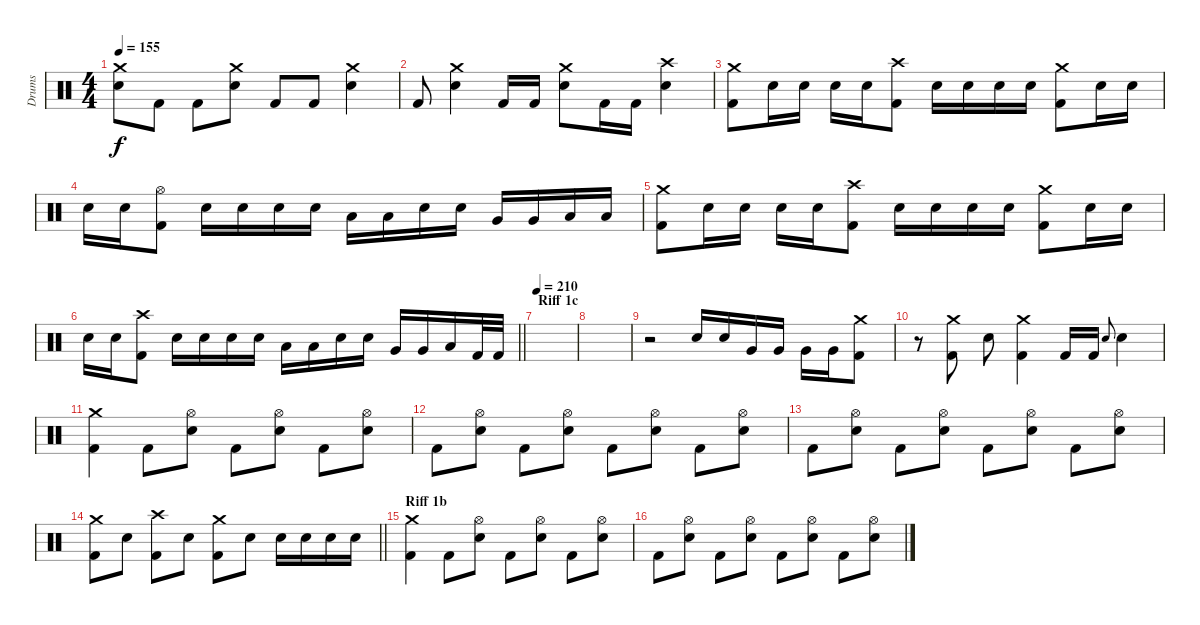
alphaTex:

\track ("Drums" "Drums") {instrument percussion}
\staff {score}
\articulation defaults
\ts (4 4)
\tempo 155
\clef neutral
\ks c
("Electric Snare (hit)" "Crash medium (hit)").8{dy f} "Kick (hit) 2".8 "Kick (hit) 2".8 ("Electric Snare (hit)" "Crash medium (hit)").8 "Kick (hit) 2".8 "Kick (hit) 2".8 ("Electric Snare (hit)" "Crash medium (hit)").4 |
"Kick (hit) 2".8 ("Electric Snare (hit)" "Crash medium (hit)").4 "Kick (hit) 2".16 "Kick (hit) 2".16 ("Electric Snare (hit)" "Crash medium (hit)").8 "Kick (hit) 2".16 "Kick (hit) 2".16 ("Electric Snare (hit)" "Crash high (hit)").4 |
("Crash medium (hit)" "Kick (hit) 2").8 "Electric Snare (hit)".16 "Electric Snare (hit)".16 "Electric Snare (hit)".16 "Electric Snare (hit)".16 ("Kick (hit) 2" "Crash high (hit)").8 "Electric Snare (hit)".16 "Electric Snare (hit)".16 "Electric Snare (hit)".16 "Electric Snare (hit)".16 ("Kick (hit) 2" "Crash medium (hit)").8 "Electric Snare (hit)".16 "Electric Snare (hit)".16 |
"Electric Snare (hit)".16 "Electric Snare (hit)".16 ("Kick (hit) 2" "Hi-Hat (open)").8 "Electric Snare (hit)".16 "Electric Snare (hit)".16 "Electric Snare (hit)".16 "Electric Snare (hit)".16 "Low Tom (hit)".16 "Low Tom (hit)".16 "Electric Snare (hit)".16 "Electric Snare (hit)".16 "Very Low Tom (hit)".16 "Very Low Tom (hit)".16 "Low Floor Tom (hit)".16 "Low Floor Tom (hit)".16 |
("Crash medium (hit)" "Kick (hit) 2").8 "Electric Snare (hit)".16 "Electric Snare (hit)".16 "Electric Snare (hit)".16 "Electric Snare (hit)".16 ("Kick (hit) 2" "Crash high (hit)").8 "Electric Snare (hit)".16 "Electric Snare (hit)".16 "Electric Snare (hit)".16 "Electric Snare (hit)".16 ("Kick (hit) 2" "Crash medium (hit)").8 "Electric Snare (hit)".16 "Electric Snare (hit)".16 |
\barLineRight lightlight "Electric Snare (hit)".16 "Electric Snare (hit)".16
("Kick (hit) 2" "Crash high (hit)").8 "Electric Snare (hit)".16 "Electric Snare (hit)".16 "Electric Snare (hit)".16 "Electric Snare (hit)".16 "Low Tom (hit)".16 "Low Tom (hit)".16 "Electric Snare (hit)".16 "Electric Snare (hit)".16 "Very Low Tom (hit)".16 "Very Low Tom (hit)".16 "Low Floor Tom (hit)".16 "Kick (hit) 2".32 "Kick (hit) 2".32 |
\section ("" "Riff 1c")
\tempo 210
|
|
r.2 "Electric Snare (hit)".16 "Electric Snare (hit)".16 "Very Low Tom (hit)".16 "Very Low Tom (hit)".16 "Very Low Tom (hit)".16 "Very Low Tom (hit)".16 ("Kick (hit) 2" "Crash medium (hit)").8 |
r.8 ("Kick (hit) 2" "Crash medium (hit)").8 "Electric Snare (hit)".8 ("Kick (hit) 2" "Crash medium (hit)").4 "Kick (hit) 2".16 "Kick (hit) 2".16 "Electric Snare (hit)".8{gr onbeat} "Electric Snare (hit)".4 |
("Crash medium (hit)" "Kick (hit) 2").4 "Kick (hit) 2".8 ("Electric Snare (hit)" "Hi-Hat (open)").8 "Kick (hit) 2".8 ("Electric Snare (hit)" "Hi-Hat (open)").8 "Kick (hit) 2".8 ("Electric Snare (hit)" "Hi-Hat (open)").8 |
"Kick (hit) 2".8 ("Electric Snare (hit)" "Hi-Hat (open)").8 "Kick (hit) 2".8 ("Electric Snare (hit)" "Hi-Hat (open)").8 "Kick (hit) 2".8 ("Electric Snare (hit)" "Hi-Hat (open)").8 "Kick (hit) 2".8 ("Electric Snare (hit)" "Hi-Hat (open)").8 |
"Kick (hit) 2".8 ("Electric Snare (hit)" "Hi-Hat (open)").8 "Kick (hit) 2".8 ("Electric Snare (hit)" "Hi-Hat (open)").8 "Kick (hit) 2".8 ("Electric Snare (hit)" "Hi-Hat (open)").8 "Kick (hit) 2".8 ("Electric Snare (hit)" "Hi-Hat (open)").8 |
\barLineRight lightlight
("Kick (hit) 2" "Crash medium (hit)").8 "Electric Snare (hit)".8 ("Kick (hit) 2" "Crash high (hit)").8 "Electric Snare (hit)".8 ("Kick (hit) 2" "Crash medium (hit)").8 "Electric Snare (hit)".8 "Electric Snare (hit)".16 "Electric Snare (hit)".16 "Electric Snare (hit)".16 "Electric Snare (hit)".16 |
\section ("" "Riff 1b")
("Crash medium (hit)" "Kick (hit) 2").4 "Kick (hit) 2".8 ("Electric Snare (hit)" "Hi-Hat (open)").8 "Kick (hit) 2".8 ("Electric Snare (hit)" "Hi-Hat (open)").8 "Kick (hit) 2".8 ("Electric Snare (hit)" "Hi-Hat (open)").8 |
"Kick (hit) 2".8 ("Electric Snare (hit)" "Hi-Hat (open)").8 "Kick (hit) 2".8 ("Electric Snare (hit)" "Hi-Hat (open)").8 "Kick (hit) 2".8 ("Electric Snare (hit)" "Hi-Hat (open)").8 "Kick (hit) 2".8 ("Electric Snare (hit)" "Hi-Hat (open)").8
